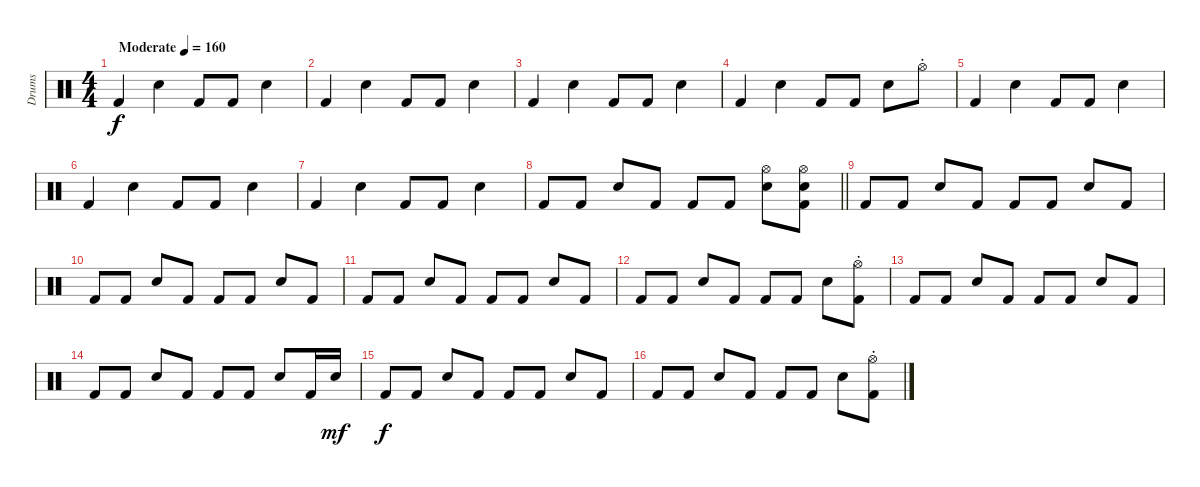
\track ("Drums" "Drums") {instrument percussion}
\staff {score}
\articulation defaults
\ts (4 4)
\tempo (160 "Moderate")
\clef neutral
\ks c "Kick (hit) 2".4{dy f} "Snare (hit) 2".4 "Kick (hit) 2".8 "Kick (hit) 2".8 "Snare (hit) 2".4
|
"Kick (hit) 2".4 "Snare (hit) 2".4 "Kick (hit) 2".8 "Kick (hit) 2".8 "Snare (hit) 2".4 |
"Kick (hit) 2".4 "Snare (hit) 2".4 "Kick (hit) 2".8 "Kick (hit) 2".8 "Snare (hit) 2".4 |
"Kick (hit) 2".4 "Snare (hit) 2".4 "Kick (hit) 2".8 "Kick (hit) 2".8 "Snare (hit) 2".8 "Hi-Hat (open)"{st}.8 |
"Kick (hit) 2".4 "Snare (hit) 2".4 "Kick (hit) 2".8 "Kick (hit) 2".8 "Snare (hit) 2".4 |
"Kick (hit) 2".4 "Snare (hit) 2".4 "Kick (hit) 2".8 "Kick (hit) 2".8 "Snare (hit) 2".4 |
"Kick (hit) 2".4 "Snare (hit) 2".4 "Kick (hit) 2".8 "Kick (hit) 2".8 "Snare (hit) 2".4 |
\barLineRight lightlight "Kick (hit) 2".8 "Kick (hit) 2".8 "Snare (hit) 2".8 "Kick (hit) 2".8 "Kick (hit) 2".8 "Kick (hit) 2".8
("Hi-Hat (open)" "Snare (hit) 2").8 ("Hi-Hat (open)" "Snare (hit) 2" "Kick (hit) 2").8 |
"Kick (hit) 2".8 "Kick (hit) 2".8 "Snare (hit) 2".8 "Kick (hit) 2".8 "Kick (hit) 2".8 "Kick (hit) 2".8 "Snare (hit) 2".8 "Kick (hit) 2".8 |
"Kick (hit) 2".8 "Kick (hit) 2".8 "Snare (hit) 2".8 "Kick (hit) 2".8 "Kick (hit) 2".8 "Kick (hit) 2".8 "Snare (hit) 2".8 "Kick (hit) 2".8 |
"Kick (hit) 2".8 "Kick (hit) 2".8 "Snare (hit) 2".8 "Kick (hit) 2".8 "Kick (hit) 2".8 "Kick (hit) 2".8 "Snare (hit) 2".8 "Kick (hit) 2".8 |
"Kick (hit) 2".8 "Kick (hit) 2".8 "Snare (hit) 2".8 "Kick (hit) 2".8 "Kick (hit) 2".8 "Kick (hit) 2".8 "Snare (hit) 2".8 ("Hi-Hat (open)"{st} "Kick (hit) 2").8 |
"Kick (hit) 2".8 "Kick (hit) 2".8 "Snare (hit) 2".8 "Kick (hit) 2".8 "Kick (hit) 2".8 "Kick (hit) 2".8 "Snare (hit) 2".8 "Kick (hit) 2".8 |
"Kick (hit) 2".8 "Kick (hit) 2".8 "Snare (hit) 2".8 "Kick (hit) 2".8 "Kick (hit) 2".8 "Kick (hit) 2".8 "Snare (hit) 2".8 "Kick (hit) 2".16 "Snare (hit) 2".16{dy mf} |
"Kick (hit) 2".8{dy f} "Kick (hit) 2".8 "Snare (hit) 2".8 "Kick (hit) 2".8 "Kick (hit) 2".8 "Kick (hit) 2".8 "Snare (hit) 2".8 "Kick (hit) 2".8 |
"Kick (hit) 2".8 "Kick (hit) 2".8 "Snare (hit) 2".8 "Kick (hit) 2".8 "Kick (hit) 2".8 "Kick (hit) 2".8 "Snare (hit) 2".8 ("Hi-Hat (open)"{st} "Kick (hit) 2").8
